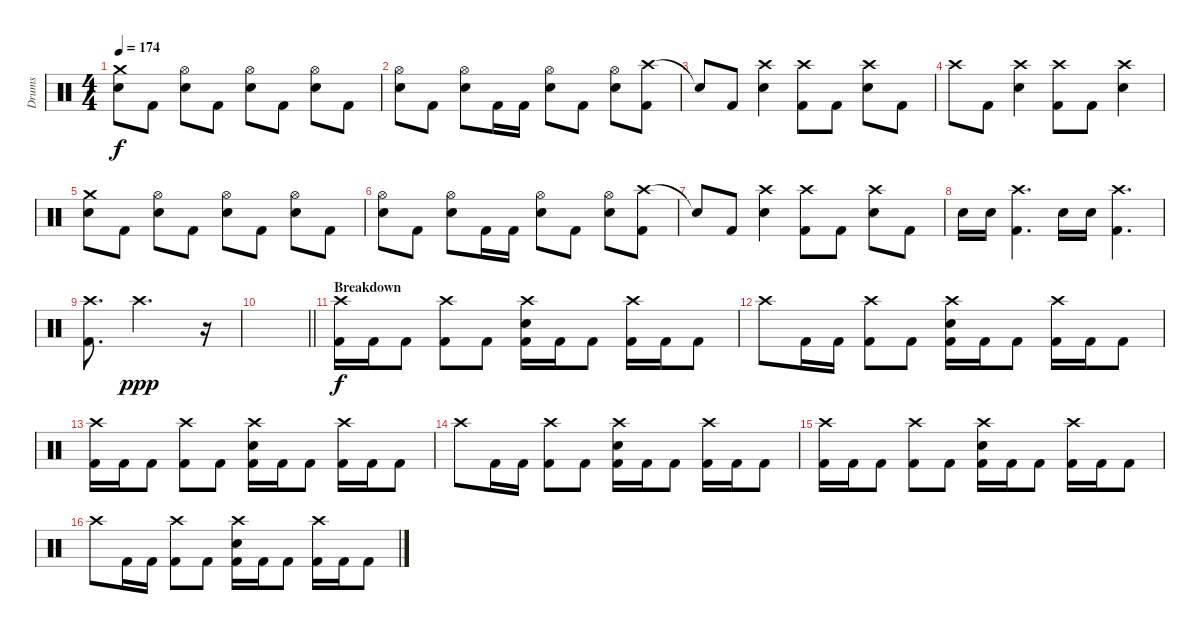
\track ("Drums" "Drums") {instrument percussion}
\staff {score}
\articulation defaults
\ts (4 4)
\tempo 174
\clef neutral
\ks c
("Crash medium (hit)" "Electric Snare (hit)").8{dy f} "Kick (hit) 2".8 ("Hi-Hat (open)" "Electric Snare (hit)").8 "Kick (hit) 2".8 ("Hi-Hat (open)" "Electric Snare (hit)").8 "Kick (hit) 2".8 ("Hi-Hat (open)" "Electric Snare (hit)").8 "Kick (hit) 2".8 |
("Hi-Hat (open)" "Electric Snare (hit)").8 "Kick (hit) 2".8 ("Hi-Hat (open)" "Electric Snare (hit)").8 "Kick (hit) 2".16 "Kick (hit) 2".16 ("Hi-Hat (open)" "Electric Snare (hit)").8 "Kick (hit) 2".8 ("Hi-Hat (open)" "Electric Snare (hit)").8 ("Crash high (hit)" "Kick (hit) 2").8 |
"Snare (hit)"{t}.8 "Kick (hit) 2".8 ("Crash high (hit)" "Electric Snare (hit)").4 ("Crash high (hit)" "Kick (hit) 2").8 "Kick (hit) 2".8 ("Crash high (hit)" "Electric Snare (hit)").8 "Kick (hit) 2".8 |
"Crash high (hit)".8 "Kick (hit) 2".8 ("Crash high (hit)" "Electric Snare (hit)").4 ("Crash high (hit)" "Kick (hit) 2").8 "Kick (hit) 2".8 ("Crash high (hit)" "Electric Snare (hit)").4 |
("Crash medium (hit)" "Electric Snare (hit)").8 "Kick (hit) 2".8 ("Hi-Hat (open)" "Electric Snare (hit)").8 "Kick (hit) 2".8 ("Hi-Hat (open)" "Electric Snare (hit)").8 "Kick (hit) 2".8 ("Hi-Hat (open)" "Electric Snare (hit)").8 "Kick (hit) 2".8 |
("Hi-Hat (open)" "Electric Snare (hit)").8 "Kick (hit) 2".8 ("Hi-Hat (open)" "Electric Snare (hit)").8 "Kick (hit) 2".16 "Kick (hit) 2".16 ("Hi-Hat (open)" "Electric Snare (hit)").8 "Kick (hit) 2".8 ("Hi-Hat (open)" "Electric Snare (hit)").8 ("Crash high (hit)" "Kick (hit) 2").8 |
"Snare (hit)"{t}.8 "Kick (hit) 2".8 ("Crash high (hit)" "Electric Snare (hit)").4 ("Crash high (hit)" "Kick (hit) 2").8 "Kick (hit) 2".8 ("Crash high (hit)" "Electric Snare (hit)").8 "Kick (hit) 2".8 |
"Electric Snare (hit)".16 "Electric Snare (hit)".16 ("Crash high (hit)" "Kick (hit) 2").4{d} "Electric Snare (hit)".16 "Electric Snare (hit)".16 ("Crash high (hit)" "Kick (hit) 2").4{d} |
("Crash high (hit)" "Kick (hit) 2").8{d} "Crash high (hit)".2{d dy ppp} r.16 |
\barLineRight lightlight
|
\section ("" "Breakdown")
("Crash high (hit)" "Kick (hit) 2").16{dy f} "Kick (hit) 2".16 "Kick (hit) 2".8 ("Crash high (hit)" "Kick (hit) 2").8 "Kick (hit) 2".8 ("Crash high (hit)" "Electric Snare (hit)" "Kick (hit) 2").16 "Kick (hit) 2".16 "Kick (hit) 2".8 ("Crash high (hit)" "Kick (hit) 2").16 "Kick (hit) 2".16 "Kick (hit) 2".8 |
"Crash high (hit)".8 "Kick (hit) 2".16 "Kick (hit) 2".16 ("Crash high (hit)" "Kick (hit) 2").8 "Kick (hit) 2".8 ("Crash high (hit)" "Electric Snare (hit)" "Kick (hit) 2").16 "Kick (hit) 2".16 "Kick (hit) 2".8 ("Crash high (hit)" "Kick (hit) 2").16 "Kick (hit) 2".16 "Kick (hit) 2".8 |
("Crash high (hit)" "Kick (hit) 2").16 "Kick (hit) 2".16 "Kick (hit) 2".8 ("Crash high (hit)" "Kick (hit) 2").8 "Kick (hit) 2".8 ("Crash high (hit)" "Electric Snare (hit)" "Kick (hit) 2").16 "Kick (hit) 2".16 "Kick (hit) 2".8 ("Crash high (hit)" "Kick (hit) 2").16 "Kick (hit) 2".16 "Kick (hit) 2".8 |
"Crash high (hit)".8 "Kick (hit) 2".16 "Kick (hit) 2".16 ("Crash high (hit)" "Kick (hit) 2").8 "Kick (hit) 2".8 ("Crash high (hit)" "Electric Snare (hit)" "Kick (hit) 2").16 "Kick (hit) 2".16 "Kick (hit) 2".8 ("Crash high (hit)" "Kick (hit) 2").16 "Kick (hit) 2".16 "Kick (hit) 2".8 |
("Crash high (hit)" "Kick (hit) 2").16 "Kick (hit) 2".16 "Kick (hit) 2".8 ("Crash high (hit)" "Kick (hit) 2").8 "Kick (hit) 2".8 ("Crash high (hit)" "Electric Snare (hit)" "Kick (hit) 2").16 "Kick (hit) 2".16 "Kick (hit) 2".8 ("Crash high (hit)" "Kick (hit) 2").16 "Kick (hit) 2".16 "Kick (hit) 2".8 |
"Crash high (hit)".8 "Kick (hit) 2".16 "Kick (hit) 2".16 ("Crash high (hit)" "Kick (hit) 2").8 "Kick (hit) 2".8 ("Crash high (hit)" "Electric Snare (hit)" "Kick (hit) 2").16 "Kick (hit) 2".16 "Kick (hit) 2".8 ("Crash high (hit)" "Kick (hit) 2").16 "Kick (hit) 2".16 "Kick (hit) 2".8
